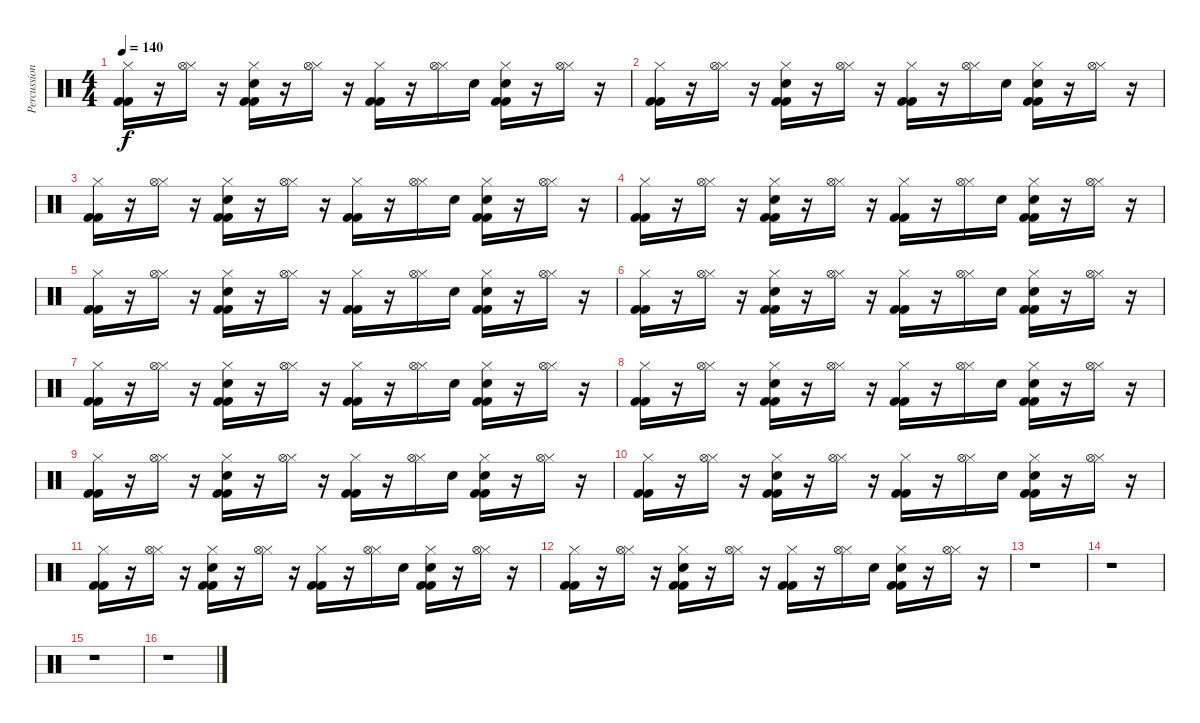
\track ("Percussion" "Percussion") {instrument percussion}
\staff {score}
\articulation defaults
\ts (4 4)
\tempo 140
\clef neutral
\ks c
("Hi-Hat (closed)" "Kick (hit) 2" "Kick (hit) 2").16{dy f} r.16 ("Hi-Hat (closed)" "Hi-Hat (open)").16 r.16 ("Hi-Hat (closed)" "Kick (hit) 2" "Kick (hit) 2" "Hand Clap (hit)").16 r.16 ("Hi-Hat (closed)" "Hi-Hat (open)").16 r.16 ("Hi-Hat (closed)" "Kick (hit) 2" "Kick (hit) 2").16 r.16 ("Hi-Hat (closed)" "Hi-Hat (open)").16 "Hand Clap (hit)".16 ("Hi-Hat (closed)" "Kick (hit) 2" "Kick (hit) 2" "Hand Clap (hit)").16 r.16 ("Hi-Hat (closed)" "Hi-Hat (open)").16 r.16 |
("Hi-Hat (closed)" "Kick (hit) 2" "Kick (hit) 2").16 r.16 ("Hi-Hat (closed)" "Hi-Hat (open)").16 r.16 ("Hi-Hat (closed)" "Kick (hit) 2" "Kick (hit) 2" "Hand Clap (hit)").16 r.16 ("Hi-Hat (closed)" "Hi-Hat (open)").16 r.16 ("Hi-Hat (closed)" "Kick (hit) 2" "Kick (hit) 2").16 r.16 ("Hi-Hat (closed)" "Hi-Hat (open)").16 "Hand Clap (hit)".16 ("Hi-Hat (closed)" "Kick (hit) 2" "Kick (hit) 2" "Hand Clap (hit)").16 r.16 ("Hi-Hat (closed)" "Hi-Hat (open)").16 r.16 |
("Hi-Hat (closed)" "Kick (hit) 2" "Kick (hit) 2").16 r.16 ("Hi-Hat (closed)" "Hi-Hat (open)").16 r.16 ("Hi-Hat (closed)" "Kick (hit) 2" "Kick (hit) 2" "Hand Clap (hit)").16 r.16 ("Hi-Hat (closed)" "Hi-Hat (open)").16 r.16 ("Hi-Hat (closed)" "Kick (hit) 2" "Kick (hit) 2").16 r.16 ("Hi-Hat (closed)" "Hi-Hat (open)").16 "Hand Clap (hit)".16 ("Hi-Hat (closed)" "Kick (hit) 2" "Kick (hit) 2" "Hand Clap (hit)").16 r.16 ("Hi-Hat (closed)" "Hi-Hat (open)").16 r.16 |
("Hi-Hat (closed)" "Kick (hit) 2" "Kick (hit) 2").16 r.16 ("Hi-Hat (closed)" "Hi-Hat (open)").16 r.16 ("Hi-Hat (closed)" "Kick (hit) 2" "Kick (hit) 2" "Hand Clap (hit)").16 r.16 ("Hi-Hat (closed)" "Hi-Hat (open)").16 r.16 ("Hi-Hat (closed)" "Kick (hit) 2" "Kick (hit) 2").16 r.16 ("Hi-Hat (closed)" "Hi-Hat (open)").16 "Hand Clap (hit)".16 ("Hi-Hat (closed)" "Kick (hit) 2" "Kick (hit) 2" "Hand Clap (hit)").16 r.16 ("Hi-Hat (closed)" "Hi-Hat (open)").16 r.16 |
("Hi-Hat (closed)" "Kick (hit) 2" "Kick (hit) 2").16 r.16 ("Hi-Hat (closed)" "Hi-Hat (open)").16 r.16 ("Hi-Hat (closed)" "Kick (hit) 2" "Kick (hit) 2" "Hand Clap (hit)").16 r.16 ("Hi-Hat (closed)" "Hi-Hat (open)").16 r.16 ("Hi-Hat (closed)" "Kick (hit) 2" "Kick (hit) 2").16 r.16 ("Hi-Hat (closed)" "Hi-Hat (open)").16 "Hand Clap (hit)".16 ("Hi-Hat (closed)" "Kick (hit) 2" "Kick (hit) 2" "Hand Clap (hit)").16 r.16 ("Hi-Hat (closed)" "Hi-Hat (open)").16 r.16 |
("Hi-Hat (closed)" "Kick (hit) 2" "Kick (hit) 2").16 r.16 ("Hi-Hat (closed)" "Hi-Hat (open)").16 r.16 ("Hi-Hat (closed)" "Kick (hit) 2" "Kick (hit) 2" "Hand Clap (hit)").16 r.16 ("Hi-Hat (closed)" "Hi-Hat (open)").16 r.16 ("Hi-Hat (closed)" "Kick (hit) 2" "Kick (hit) 2").16 r.16 ("Hi-Hat (closed)" "Hi-Hat (open)").16 "Hand Clap (hit)".16 ("Hi-Hat (closed)" "Kick (hit) 2" "Kick (hit) 2" "Hand Clap (hit)").16 r.16 ("Hi-Hat (closed)" "Hi-Hat (open)").16 r.16 |
("Hi-Hat (closed)" "Kick (hit) 2" "Kick (hit) 2").16 r.16 ("Hi-Hat (closed)" "Hi-Hat (open)").16 r.16 ("Hi-Hat (closed)" "Kick (hit) 2" "Kick (hit) 2" "Hand Clap (hit)").16 r.16 ("Hi-Hat (closed)" "Hi-Hat (open)").16 r.16 ("Hi-Hat (closed)" "Kick (hit) 2" "Kick (hit) 2").16 r.16 ("Hi-Hat (closed)" "Hi-Hat (open)").16 "Hand Clap (hit)".16 ("Hi-Hat (closed)" "Kick (hit) 2" "Kick (hit) 2" "Hand Clap (hit)").16 r.16 ("Hi-Hat (closed)" "Hi-Hat (open)").16 r.16 |
("Hi-Hat (closed)" "Kick (hit) 2" "Kick (hit) 2").16 r.16 ("Hi-Hat (closed)" "Hi-Hat (open)").16 r.16 ("Hi-Hat (closed)" "Kick (hit) 2" "Kick (hit) 2" "Hand Clap (hit)").16 r.16 ("Hi-Hat (closed)" "Hi-Hat (open)").16 r.16 ("Hi-Hat (closed)" "Kick (hit) 2" "Kick (hit) 2").16 r.16 ("Hi-Hat (closed)" "Hi-Hat (open)").16 "Hand Clap (hit)".16 ("Hi-Hat (closed)" "Kick (hit) 2" "Kick (hit) 2" "Hand Clap (hit)").16 r.16 ("Hi-Hat (closed)" "Hi-Hat (open)").16 r.16 |
("Hi-Hat (closed)" "Kick (hit) 2" "Kick (hit) 2").16 r.16 ("Hi-Hat (closed)" "Hi-Hat (open)").16 r.16 ("Hi-Hat (closed)" "Kick (hit) 2" "Kick (hit) 2" "Hand Clap (hit)").16 r.16 ("Hi-Hat (closed)" "Hi-Hat (open)").16 r.16 ("Hi-Hat (closed)" "Kick (hit) 2" "Kick (hit) 2").16 r.16 ("Hi-Hat (closed)" "Hi-Hat (open)").16 "Hand Clap (hit)".16 ("Hi-Hat (closed)" "Kick (hit) 2" "Kick (hit) 2" "Hand Clap (hit)").16 r.16 ("Hi-Hat (closed)" "Hi-Hat (open)").16 r.16 |
("Hi-Hat (closed)" "Kick (hit) 2" "Kick (hit) 2").16 r.16 ("Hi-Hat (closed)" "Hi-Hat (open)").16 r.16 ("Hi-Hat (closed)" "Kick (hit) 2" "Kick (hit) 2" "Hand Clap (hit)").16 r.16 ("Hi-Hat (closed)" "Hi-Hat (open)").16 r.16 ("Hi-Hat (closed)" "Kick (hit) 2" "Kick (hit) 2").16 r.16 ("Hi-Hat (closed)" "Hi-Hat (open)").16 "Hand Clap (hit)".16 ("Hi-Hat (closed)" "Kick (hit) 2" "Kick (hit) 2" "Hand Clap (hit)").16 r.16 ("Hi-Hat (closed)" "Hi-Hat (open)").16 r.16 |
("Hi-Hat (closed)" "Kick (hit) 2" "Kick (hit) 2").16 r.16 ("Hi-Hat (closed)" "Hi-Hat (open)").16 r.16 ("Hi-Hat (closed)" "Kick (hit) 2" "Kick (hit) 2" "Hand Clap (hit)").16 r.16 ("Hi-Hat (closed)" "Hi-Hat (open)").16 r.16 ("Hi-Hat (closed)" "Kick (hit) 2" "Kick (hit) 2").16 r.16 ("Hi-Hat (closed)" "Hi-Hat (open)").16 "Hand Clap (hit)".16 ("Hi-Hat (closed)" "Kick (hit) 2" "Kick (hit) 2" "Hand Clap (hit)").16 r.16 ("Hi-Hat (closed)" "Hi-Hat (open)").16 r.16 |
("Hi-Hat (closed)" "Kick (hit) 2" "Kick (hit) 2").16 r.16 ("Hi-Hat (closed)" "Hi-Hat (open)").16 r.16 ("Hi-Hat (closed)" "Kick (hit) 2" "Kick (hit) 2" "Hand Clap (hit)").16 r.16 ("Hi-Hat (closed)" "Hi-Hat (open)").16 r.16 ("Hi-Hat (closed)" "Kick (hit) 2" "Kick (hit) 2").16 r.16 ("Hi-Hat (closed)" "Hi-Hat (open)").16 "Hand Clap (hit)".16 ("Hi-Hat (closed)" "Kick (hit) 2" "Kick (hit) 2" "Hand Clap (hit)").16 r.16 ("Hi-Hat (closed)" "Hi-Hat (open)").16 r.16 |
r.1 |
r.1 |
r.1 |
r.1
